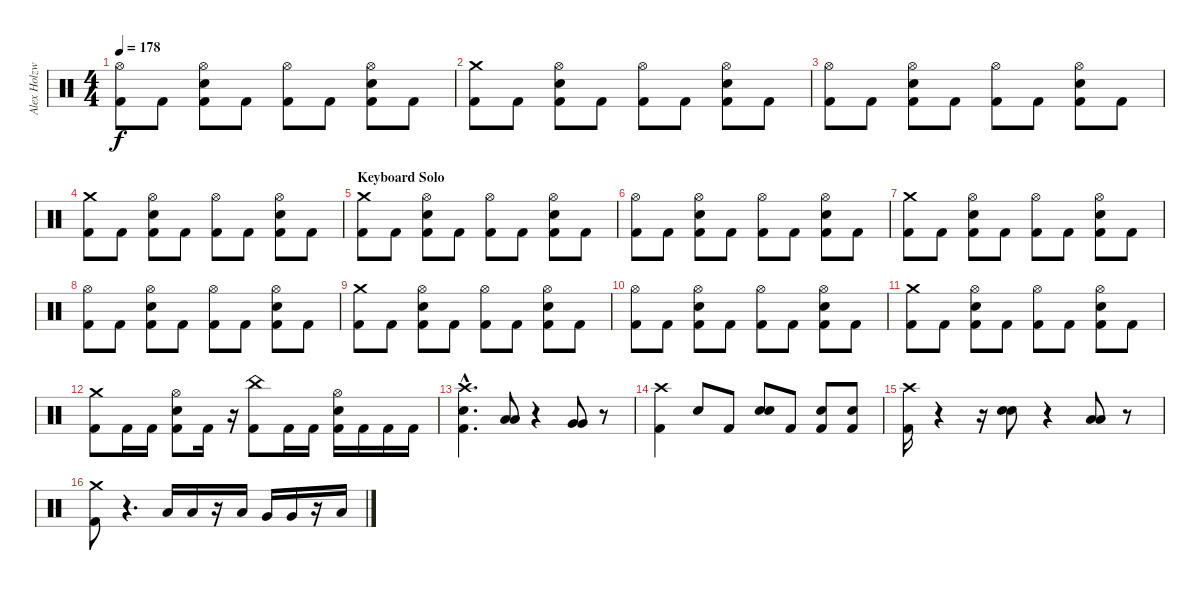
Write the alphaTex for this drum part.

\track ("Alex Holzwarth" "Alex Holzw") {instrument percussion}
\staff {score}
\articulation defaults
\ts (4 4)
\tempo 178
\clef neutral
\ks c
("Hi-Hat (open)" "Kick (hit) 2").8{dy f} "Kick (hit) 2".8 ("Hi-Hat (open)" "Snare (hit) 2" "Kick (hit) 2").8 "Kick (hit) 2".8 ("Hi-Hat (open)" "Kick (hit) 2").8 "Kick (hit) 2".8 ("Hi-Hat (open)" "Snare (hit) 2" "Kick (hit) 2").8 "Kick (hit) 2".8 |
("Crash medium (hit)" "Kick (hit) 2").8 "Kick (hit) 2".8 ("Hi-Hat (open)" "Snare (hit) 2" "Kick (hit) 2").8 "Kick (hit) 2".8 ("Hi-Hat (open)" "Kick (hit) 2").8 "Kick (hit) 2".8 ("Hi-Hat (open)" "Snare (hit) 2" "Kick (hit) 2").8 "Kick (hit) 2".8 |
("Hi-Hat (open)" "Kick (hit) 2").8 "Kick (hit) 2".8 ("Hi-Hat (open)" "Snare (hit) 2" "Kick (hit) 2").8 "Kick (hit) 2".8 ("Hi-Hat (open)" "Kick (hit) 2").8 "Kick (hit) 2".8 ("Hi-Hat (open)" "Snare (hit) 2" "Kick (hit) 2").8 "Kick (hit) 2".8 |
("Crash medium (hit)" "Kick (hit) 2").8 "Kick (hit) 2".8 ("Hi-Hat (open)" "Snare (hit) 2" "Kick (hit) 2").8 "Kick (hit) 2".8 ("Hi-Hat (open)" "Kick (hit) 2").8 "Kick (hit) 2".8 ("Hi-Hat (open)" "Snare (hit) 2" "Kick (hit) 2").8 "Kick (hit) 2".8 |
\section ("" "Keyboard Solo")
("Crash medium (hit)" "Kick (hit) 2").8 "Kick (hit) 2".8 ("Hi-Hat (open)" "Snare (hit) 2" "Kick (hit) 2").8 "Kick (hit) 2".8 ("Hi-Hat (open)" "Kick (hit) 2").8 "Kick (hit) 2".8 ("Hi-Hat (open)" "Snare (hit) 2" "Kick (hit) 2").8 "Kick (hit) 2".8 |
("Hi-Hat (open)" "Kick (hit) 2").8 "Kick (hit) 2".8 ("Hi-Hat (open)" "Snare (hit) 2" "Kick (hit) 2").8 "Kick (hit) 2".8 ("Hi-Hat (open)" "Kick (hit) 2").8 "Kick (hit) 2".8 ("Hi-Hat (open)" "Snare (hit) 2" "Kick (hit) 2").8 "Kick (hit) 2".8 |
("Crash medium (hit)" "Kick (hit) 2").8 "Kick (hit) 2".8 ("Hi-Hat (open)" "Snare (hit) 2" "Kick (hit) 2").8 "Kick (hit) 2".8 ("Hi-Hat (open)" "Kick (hit) 2").8 "Kick (hit) 2".8 ("Hi-Hat (open)" "Snare (hit) 2" "Kick (hit) 2").8 "Kick (hit) 2".8 |
("Hi-Hat (open)" "Kick (hit) 2").8 "Kick (hit) 2".8 ("Hi-Hat (open)" "Snare (hit) 2" "Kick (hit) 2").8 "Kick (hit) 2".8 ("Hi-Hat (open)" "Kick (hit) 2").8 "Kick (hit) 2".8 ("Hi-Hat (open)" "Snare (hit) 2" "Kick (hit) 2").8 "Kick (hit) 2".8 |
("Crash medium (hit)" "Kick (hit) 2").8 "Kick (hit) 2".8 ("Hi-Hat (open)" "Snare (hit) 2" "Kick (hit) 2").8 "Kick (hit) 2".8 ("Hi-Hat (open)" "Kick (hit) 2").8 "Kick (hit) 2".8 ("Hi-Hat (open)" "Snare (hit) 2" "Kick (hit) 2").8 "Kick (hit) 2".8 |
("Hi-Hat (open)" "Kick (hit) 2").8 "Kick (hit) 2".8 ("Hi-Hat (open)" "Snare (hit) 2" "Kick (hit) 2").8 "Kick (hit) 2".8 ("Hi-Hat (open)" "Kick (hit) 2").8 "Kick (hit) 2".8 ("Hi-Hat (open)" "Snare (hit) 2" "Kick (hit) 2").8 "Kick (hit) 2".8 |
("Crash medium (hit)" "Kick (hit) 2").8 "Kick (hit) 2".8 ("Hi-Hat (open)" "Snare (hit) 2" "Kick (hit) 2").8 "Kick (hit) 2".8 ("Hi-Hat (open)" "Kick (hit) 2").8 "Kick (hit) 2".8 ("Hi-Hat (open)" "Snare (hit) 2" "Kick (hit) 2").8 "Kick (hit) 2".8 |
("Crash medium (hit)" "Kick (hit) 2").8 "Kick (hit) 2".16 "Kick (hit) 2".16 ("Hi-Hat (open)" "Snare (hit) 2" "Kick (hit) 2").8 "Kick (hit) 2".16 r.16 ("China (hit)" "Kick (hit) 2").8 "Kick (hit) 2".16 "Kick (hit) 2".16 ("Hi-Hat (open)" "Snare (hit) 2" "Kick (hit) 2").16 "Kick (hit) 2".16 "Kick (hit) 2".16 "Kick (hit) 2".16 |
("Crash high (hit)"{hac} "Snare (hit) 2"{hac} "Kick (hit) 2"{hac}).4{d} ("Low Tom (hit)" "Low Tom (hit)").8 r.4 ("Very Low Tom (hit)" "Very Low Tom (hit)").8 r.8 |
("Crash high (hit)" "Kick (hit) 2").4 "Snare (hit) 2".8 "Kick (hit) 2".8 ("Snare (hit) 2" "Snare (hit) 2").8 "Kick (hit) 2".8 ("Snare (hit) 2" "Kick (hit) 2").8 ("Snare (hit) 2" "Kick (hit) 2").8 |
("Crash high (hit)" "Kick (hit) 2").16 r.4 r.16 ("Snare (hit) 2" "Snare (hit) 2").8 r.4 ("Low Tom (hit)" "Low Tom (hit)").8 r.8 |
("Crash medium (hit)" "Kick (hit) 2").8 r.4{d} "Low Tom (hit)".16 "Low Tom (hit)".16 r.16 "Low Tom (hit)".16 "Very Low Tom (hit)".16 "Very Low Tom (hit)".16 r.16 "Low Floor Tom (hit)".16
